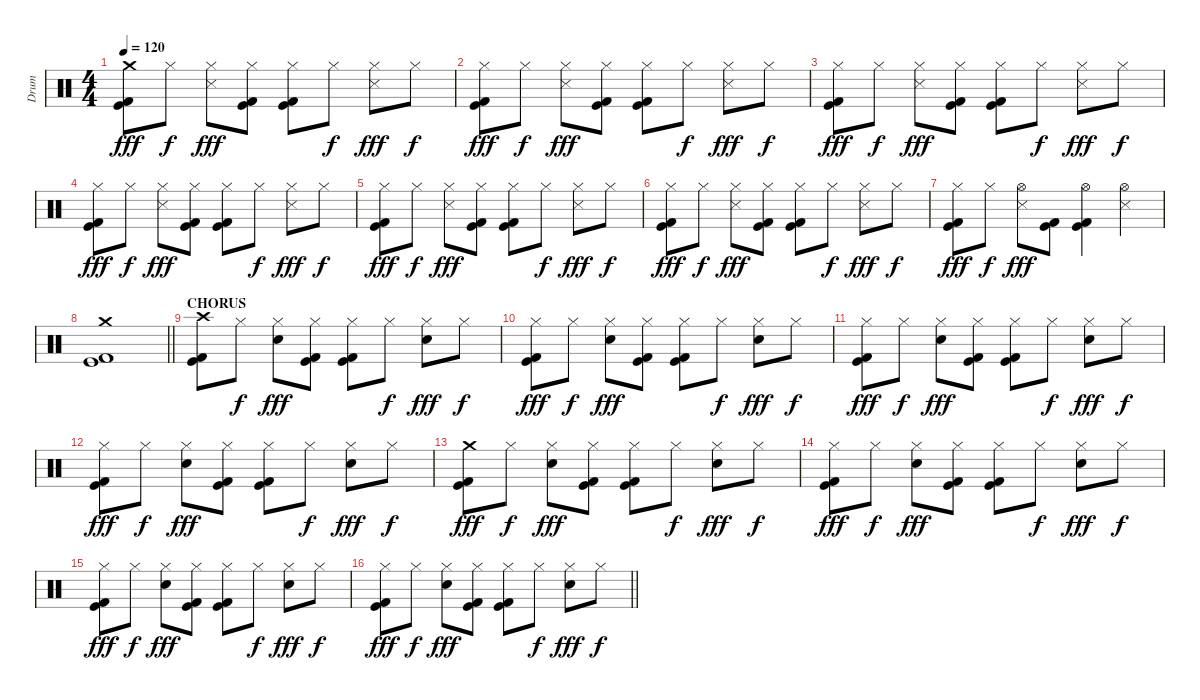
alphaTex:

\track ("Drum" "Drum") {instrument percussion}
\staff {score}
\articulation defaults
\ts (4 4)
\tempo 120
\clef neutral
\ks c
("Kick (hit)" "Kick (hit) 2" "Crash medium (hit)").8{dy fff} "Hi-Hat (closed)".8{dy f} ("Snare (side stick) 3" "Hi-Hat (closed)").8{dy fff} ("Kick (hit)" "Kick (hit) 2" "Hi-Hat (closed)").8 ("Kick (hit)" "Kick (hit) 2" "Hi-Hat (closed)").8 "Hi-Hat (closed)".8{dy f} ("Snare (side stick) 3" "Hi-Hat (closed)").8{dy fff} "Hi-Hat (closed)".8{dy f} |
("Kick (hit)" "Kick (hit) 2" "Hi-Hat (closed)").8{dy fff} "Hi-Hat (closed)".8{dy f} ("Snare (side stick) 3" "Hi-Hat (closed)").8{dy fff} ("Kick (hit)" "Kick (hit) 2" "Hi-Hat (closed)").8 ("Kick (hit)" "Kick (hit) 2" "Hi-Hat (closed)").8 "Hi-Hat (closed)".8{dy f} ("Snare (side stick) 3" "Hi-Hat (closed)").8{dy fff} "Hi-Hat (closed)".8{dy f} |
("Kick (hit)" "Kick (hit) 2" "Hi-Hat (closed)").8{dy fff} "Hi-Hat (closed)".8{dy f} ("Snare (side stick) 3" "Hi-Hat (closed)").8{dy fff} ("Kick (hit)" "Kick (hit) 2" "Hi-Hat (closed)").8 ("Kick (hit)" "Kick (hit) 2" "Hi-Hat (closed)").8 "Hi-Hat (closed)".8{dy f} ("Snare (side stick) 3" "Hi-Hat (closed)").8{dy fff} "Hi-Hat (closed)".8{dy f} |
("Kick (hit)" "Kick (hit) 2" "Hi-Hat (closed)").8{dy fff} "Hi-Hat (closed)".8{dy f} ("Snare (side stick) 3" "Hi-Hat (closed)").8{dy fff} ("Kick (hit)" "Kick (hit) 2" "Hi-Hat (closed)").8 ("Kick (hit)" "Kick (hit) 2" "Hi-Hat (closed)").8 "Hi-Hat (closed)".8{dy f} ("Snare (side stick) 3" "Hi-Hat (closed)").8{dy fff} "Hi-Hat (closed)".8{dy f} |
("Kick (hit)" "Kick (hit) 2" "Hi-Hat (closed)").8{dy fff} "Hi-Hat (closed)".8{dy f} ("Snare (side stick) 3" "Hi-Hat (closed)").8{dy fff} ("Kick (hit)" "Kick (hit) 2" "Hi-Hat (closed)").8 ("Kick (hit)" "Kick (hit) 2" "Hi-Hat (closed)").8 "Hi-Hat (closed)".8{dy f} ("Snare (side stick) 3" "Hi-Hat (closed)").8{dy fff} "Hi-Hat (closed)".8{dy f} |
("Kick (hit)" "Kick (hit) 2" "Hi-Hat (closed)").8{dy fff} "Hi-Hat (closed)".8{dy f} ("Snare (side stick) 3" "Hi-Hat (closed)").8{dy fff} ("Kick (hit)" "Kick (hit) 2" "Hi-Hat (closed)").8 ("Kick (hit)" "Kick (hit) 2" "Hi-Hat (closed)").8 "Hi-Hat (closed)".8{dy f} ("Snare (side stick) 3" "Hi-Hat (closed)").8{dy fff} "Hi-Hat (closed)".8{dy f} |
("Kick (hit)" "Kick (hit) 2" "Hi-Hat (closed)").8{dy fff} "Hi-Hat (closed)".8{dy f} ("Snare (side stick) 3" "Hi-Hat (open)").8{dy fff} ("Kick (hit)" "Kick (hit) 2").8 ("Kick (hit)" "Kick (hit) 2" "Hi-Hat (open)").4 ("Snare (side stick) 3" "Hi-Hat (open)").4 |
\barLineRight lightlight
("Kick (hit)" "Kick (hit) 2" "Crash medium (hit)").1 |
\section ("" "CHORUS")
("Kick (hit)" "Kick (hit) 2" "Crash high (hit)").8 "Hi-Hat (closed)".8{dy f} ("Snare (hit) 2" "Hi-Hat (closed)").8{dy fff} ("Kick (hit)" "Kick (hit) 2" "Hi-Hat (closed)").8 ("Kick (hit)" "Kick (hit) 2" "Hi-Hat (closed)").8 "Hi-Hat (closed)".8{dy f} ("Snare (hit) 2" "Hi-Hat (closed)").8{dy fff} "Hi-Hat (closed)".8{dy f} |
("Kick (hit)" "Kick (hit) 2" "Hi-Hat (closed)").8{dy fff} "Hi-Hat (closed)".8{dy f} ("Snare (hit) 2" "Hi-Hat (closed)").8{dy fff} ("Kick (hit)" "Kick (hit) 2" "Hi-Hat (closed)").8 ("Kick (hit)" "Kick (hit) 2" "Hi-Hat (closed)").8 "Hi-Hat (closed)".8{dy f} ("Snare (hit) 2" "Hi-Hat (closed)").8{dy fff} "Hi-Hat (closed)".8{dy f} |
("Kick (hit)" "Kick (hit) 2" "Hi-Hat (closed)").8{dy fff} "Hi-Hat (closed)".8{dy f} ("Snare (hit) 2" "Hi-Hat (closed)").8{dy fff} ("Kick (hit)" "Kick (hit) 2" "Hi-Hat (closed)").8 ("Kick (hit)" "Kick (hit) 2" "Hi-Hat (closed)").8 "Hi-Hat (closed)".8{dy f} ("Snare (hit) 2" "Hi-Hat (closed)").8{dy fff} "Hi-Hat (closed)".8{dy f} |
("Kick (hit)" "Kick (hit) 2" "Hi-Hat (closed)").8{dy fff} "Hi-Hat (closed)".8{dy f} ("Snare (hit) 2" "Hi-Hat (closed)").8{dy fff} ("Kick (hit)" "Kick (hit) 2" "Hi-Hat (closed)").8 ("Kick (hit)" "Kick (hit) 2" "Hi-Hat (closed)").8 "Hi-Hat (closed)".8{dy f} ("Snare (hit) 2" "Hi-Hat (closed)").8{dy fff} "Hi-Hat (closed)".8{dy f} |
("Kick (hit)" "Kick (hit) 2" "Crash medium (hit)").8{dy fff} "Hi-Hat (closed)".8{dy f} ("Snare (hit) 2" "Hi-Hat (closed)").8{dy fff} ("Kick (hit)" "Kick (hit) 2" "Hi-Hat (closed)").8 ("Kick (hit)" "Kick (hit) 2" "Hi-Hat (closed)").8 "Hi-Hat (closed)".8{dy f} ("Snare (hit) 2" "Hi-Hat (closed)").8{dy fff} "Hi-Hat (closed)".8{dy f} |
("Kick (hit)" "Kick (hit) 2" "Hi-Hat (closed)").8{dy fff} "Hi-Hat (closed)".8{dy f} ("Snare (hit) 2" "Hi-Hat (closed)").8{dy fff} ("Kick (hit)" "Kick (hit) 2" "Hi-Hat (closed)").8 ("Kick (hit)" "Kick (hit) 2" "Hi-Hat (closed)").8 "Hi-Hat (closed)".8{dy f} ("Snare (hit) 2" "Hi-Hat (closed)").8{dy fff} "Hi-Hat (closed)".8{dy f} |
("Kick (hit)" "Kick (hit) 2" "Hi-Hat (closed)").8{dy fff} "Hi-Hat (closed)".8{dy f} ("Snare (hit) 2" "Hi-Hat (closed)").8{dy fff} ("Kick (hit)" "Kick (hit) 2" "Hi-Hat (closed)").8 ("Kick (hit)" "Kick (hit) 2" "Hi-Hat (closed)").8 "Hi-Hat (closed)".8{dy f} ("Snare (hit) 2" "Hi-Hat (closed)").8{dy fff} "Hi-Hat (closed)".8{dy f} |
\barLineRight lightlight
("Kick (hit)" "Kick (hit) 2" "Hi-Hat (closed)").8{dy fff} "Hi-Hat (closed)".8{dy f} ("Snare (hit) 2" "Hi-Hat (closed)").8{dy fff} ("Kick (hit)" "Kick (hit) 2" "Hi-Hat (closed)").8 ("Kick (hit)" "Kick (hit) 2" "Hi-Hat (closed)").8 "Hi-Hat (closed)".8{dy f} ("Snare (hit) 2" "Hi-Hat (closed)").8{dy fff} "Hi-Hat (closed)".8{dy f}
